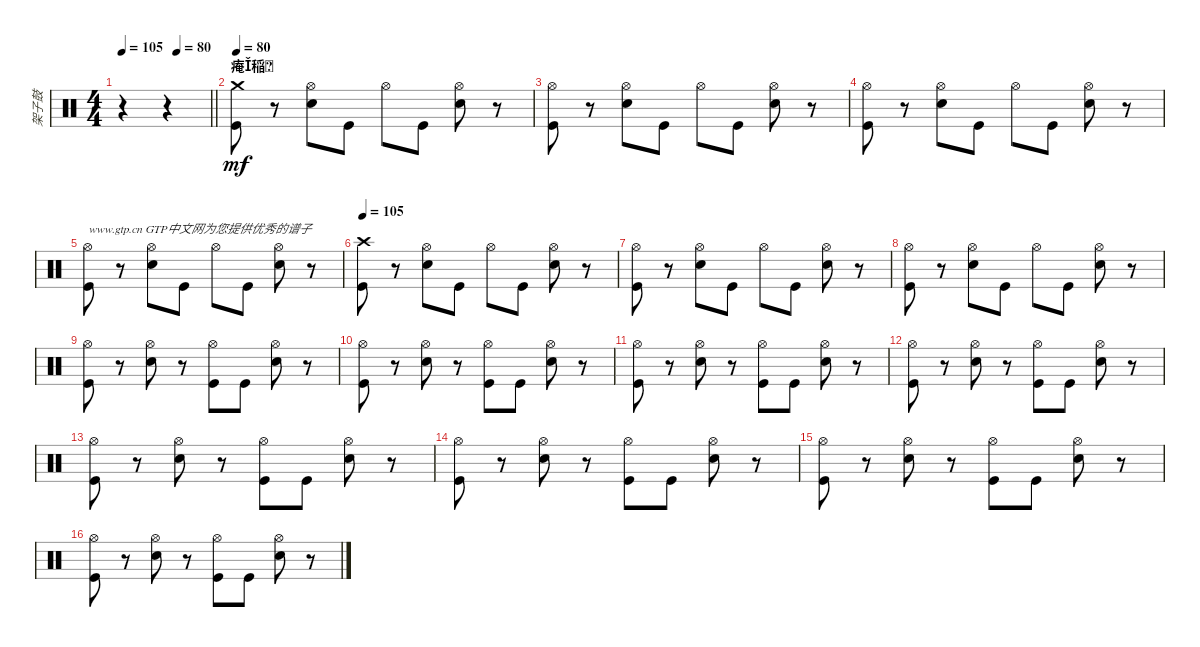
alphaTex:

\track ("架子鼓" "架子鼓") {instrument percussion}
\staff {score}
\articulation defaults
\ts (4 4)
\tempo 105
\tempo (80 0.625)
\tempo 105
\clef neutral
\barLineRight lightlight
\ks c
r.4{dy mf} r.4 |
\section ("" "痷稲")
\tempo 80
("Crash medium (hit)" "Kick (hit)").8 r.8 ("Hi-Hat (open)" "Snare (hit) 2").8 "Kick (hit)".8 "Hi-Hat (open)".8 "Kick (hit)".8 ("Hi-Hat (open)" "Snare (hit) 2").8 r.8 |
("Hi-Hat (open)" "Kick (hit)").8 r.8 ("Hi-Hat (open)" "Snare (hit) 2").8 "Kick (hit)".8 "Hi-Hat (open)".8 "Kick (hit)".8 ("Hi-Hat (open)" "Snare (hit) 2").8 r.8 |
("Hi-Hat (open)" "Kick (hit)").8 r.8 ("Hi-Hat (open)" "Snare (hit) 2").8 "Kick (hit)".8 "Hi-Hat (open)".8 "Kick (hit)".8 ("Hi-Hat (open)" "Snare (hit) 2").8 r.8 |
("Hi-Hat (open)" "Kick (hit)").8{txt "www.gtp.cn GTP中文网为您提供优秀的谱子"} r.8 ("Hi-Hat (open)" "Snare (hit) 2").8 "Kick (hit)".8 "Hi-Hat (open)".8 "Kick (hit)".8 ("Hi-Hat (open)" "Snare (hit) 2").8 r.8 |
\tempo 105
("Crash high (hit)" "Kick (hit)").8 r.8 ("Hi-Hat (open)" "Snare (hit) 2").8 "Kick (hit)".8 "Hi-Hat (open)".8 "Kick (hit)".8 ("Hi-Hat (open)" "Snare (hit) 2").8 r.8 |
("Hi-Hat (open)" "Kick (hit)").8 r.8 ("Hi-Hat (open)" "Snare (hit) 2").8 "Kick (hit)".8 "Hi-Hat (open)".8 "Kick (hit)".8 ("Hi-Hat (open)" "Snare (hit) 2").8 r.8 |
("Hi-Hat (open)" "Kick (hit)").8 r.8 ("Hi-Hat (open)" "Snare (hit) 2").8 "Kick (hit)".8 "Hi-Hat (open)".8 "Kick (hit)".8 ("Hi-Hat (open)" "Snare (hit) 2").8 r.8 |
("Hi-Hat (open)" "Kick (hit)").8 r.8 ("Hi-Hat (open)" "Snare (hit) 2").8 r.8 ("Hi-Hat (open)" "Kick (hit)").8 "Kick (hit)".8 ("Hi-Hat (open)" "Snare (hit) 2").8 r.8 |
("Hi-Hat (open)" "Kick (hit)").8 r.8 ("Hi-Hat (open)" "Snare (hit) 2").8 r.8 ("Hi-Hat (open)" "Kick (hit)").8 "Kick (hit)".8 ("Hi-Hat (open)" "Snare (hit) 2").8 r.8 |
("Hi-Hat (open)" "Kick (hit)").8 r.8 ("Hi-Hat (open)" "Snare (hit) 2").8 r.8 ("Hi-Hat (open)" "Kick (hit)").8 "Kick (hit)".8 ("Hi-Hat (open)" "Snare (hit) 2").8 r.8 |
("Hi-Hat (open)" "Kick (hit)").8 r.8 ("Hi-Hat (open)" "Snare (hit) 2").8 r.8 ("Hi-Hat (open)" "Kick (hit)").8 "Kick (hit)".8 ("Hi-Hat (open)" "Snare (hit) 2").8 r.8 |
("Hi-Hat (open)" "Kick (hit)").8 r.8 ("Hi-Hat (open)" "Snare (hit) 2").8 r.8 ("Hi-Hat (open)" "Kick (hit)").8 "Kick (hit)".8 ("Hi-Hat (open)" "Snare (hit) 2").8 r.8 |
("Hi-Hat (open)" "Kick (hit)").8 r.8 ("Hi-Hat (open)" "Snare (hit) 2").8 r.8 ("Hi-Hat (open)" "Kick (hit)").8 "Kick (hit)".8 ("Hi-Hat (open)" "Snare (hit) 2").8 r.8 |
("Hi-Hat (open)" "Kick (hit)").8 r.8 ("Hi-Hat (open)" "Snare (hit) 2").8 r.8 ("Hi-Hat (open)" "Kick (hit)").8 "Kick (hit)".8 ("Hi-Hat (open)" "Snare (hit) 2").8 r.8 |
("Hi-Hat (open)" "Kick (hit)").8 r.8 ("Hi-Hat (open)" "Snare (hit) 2").8 r.8 ("Hi-Hat (open)" "Kick (hit)").8 "Kick (hit)".8 ("Hi-Hat (open)" "Snare (hit) 2").8 r.8
